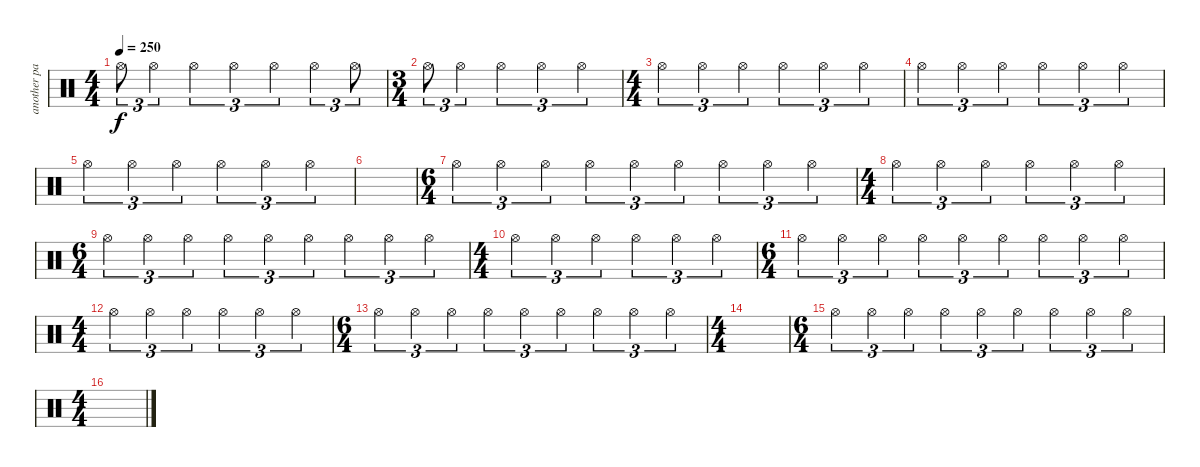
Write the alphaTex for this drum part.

\track ("another part of metti" "another pa") {instrument percussion}
\staff {score}
\articulation defaults
\ts (4 4)
\tempo 250
\clef neutral
\ks c "Hi-Hat (open)".8{tu (3 2) dy f} "Hi-Hat (open)".4{tu (3 2)} "Hi-Hat (open)".4{tu (3 2)} "Hi-Hat (open)".4{tu (3 2)} "Hi-Hat (open)".4{tu (3 2)} "Hi-Hat (open)".4{tu (3 2)} "Hi-Hat (open)".8{tu (3 2)}
|
\ts (3 4)
"Hi-Hat (open)".8{tu (3 2)} "Hi-Hat (open)".4{tu (3 2)} "Hi-Hat (open)".4{tu (3 2)} "Hi-Hat (open)".4{tu (3 2)} "Hi-Hat (open)".4{tu (3 2)} |
\ts (4 4)
"Hi-Hat (open)".4{tu (3 2)} "Hi-Hat (open)".4{tu (3 2)} "Hi-Hat (open)".4{tu (3 2)} "Hi-Hat (open)".4{tu (3 2)} "Hi-Hat (open)".4{tu (3 2)} "Hi-Hat (open)".4{tu (3 2)} |
"Hi-Hat (open)".4{tu (3 2)} "Hi-Hat (open)".4{tu (3 2)} "Hi-Hat (open)".4{tu (3 2)} "Hi-Hat (open)".4{tu (3 2)} "Hi-Hat (open)".4{tu (3 2)} "Hi-Hat (open)".4{tu (3 2)} |
"Hi-Hat (open)".4{tu (3 2)} "Hi-Hat (open)".4{tu (3 2)} "Hi-Hat (open)".4{tu (3 2)} "Hi-Hat (open)".4{tu (3 2)} "Hi-Hat (open)".4{tu (3 2)} "Hi-Hat (open)".4{tu (3 2)} |
|
\ts (6 4)
"Hi-Hat (open)".4{tu (3 2)} "Hi-Hat (open)".4{tu (3 2)} "Hi-Hat (open)".4{tu (3 2)} "Hi-Hat (open)".4{tu (3 2)} "Hi-Hat (open)".4{tu (3 2)} "Hi-Hat (open)".4{tu (3 2)} "Hi-Hat (open)".4{tu (3 2)} "Hi-Hat (open)".4{tu (3 2)} "Hi-Hat (open)".4{tu (3 2)} |
\ts (4 4)
"Hi-Hat (open)".4{tu (3 2)} "Hi-Hat (open)".4{tu (3 2)} "Hi-Hat (open)".4{tu (3 2)} "Hi-Hat (open)".4{tu (3 2)} "Hi-Hat (open)".4{tu (3 2)} "Hi-Hat (open)".4{tu (3 2)} |
\ts (6 4)
"Hi-Hat (open)".4{tu (3 2)} "Hi-Hat (open)".4{tu (3 2)} "Hi-Hat (open)".4{tu (3 2)} "Hi-Hat (open)".4{tu (3 2)} "Hi-Hat (open)".4{tu (3 2)} "Hi-Hat (open)".4{tu (3 2)} "Hi-Hat (open)".4{tu (3 2)} "Hi-Hat (open)".4{tu (3 2)} "Hi-Hat (open)".4{tu (3 2)} |
\ts (4 4)
"Hi-Hat (open)".4{tu (3 2)} "Hi-Hat (open)".4{tu (3 2)} "Hi-Hat (open)".4{tu (3 2)} "Hi-Hat (open)".4{tu (3 2)} "Hi-Hat (open)".4{tu (3 2)} "Hi-Hat (open)".4{tu (3 2)} |
\ts (6 4)
"Hi-Hat (open)".4{tu (3 2)} "Hi-Hat (open)".4{tu (3 2)} "Hi-Hat (open)".4{tu (3 2)} "Hi-Hat (open)".4{tu (3 2)} "Hi-Hat (open)".4{tu (3 2)} "Hi-Hat (open)".4{tu (3 2)} "Hi-Hat (open)".4{tu (3 2)} "Hi-Hat (open)".4{tu (3 2)} "Hi-Hat (open)".4{tu (3 2)} |
\ts (4 4)
"Hi-Hat (open)".4{tu (3 2)} "Hi-Hat (open)".4{tu (3 2)} "Hi-Hat (open)".4{tu (3 2)} "Hi-Hat (open)".4{tu (3 2)} "Hi-Hat (open)".4{tu (3 2)} "Hi-Hat (open)".4{tu (3 2)} |
\ts (6 4)
"Hi-Hat (open)".4{tu (3 2)} "Hi-Hat (open)".4{tu (3 2)} "Hi-Hat (open)".4{tu (3 2)} "Hi-Hat (open)".4{tu (3 2)} "Hi-Hat (open)".4{tu (3 2)} "Hi-Hat (open)".4{tu (3 2)} "Hi-Hat (open)".4{tu (3 2)} "Hi-Hat (open)".4{tu (3 2)} "Hi-Hat (open)".4{tu (3 2)} |
\ts (4 4)
|
\ts (6 4)
"Hi-Hat (open)".4{tu (3 2)} "Hi-Hat (open)".4{tu (3 2)} "Hi-Hat (open)".4{tu (3 2)} "Hi-Hat (open)".4{tu (3 2)} "Hi-Hat (open)".4{tu (3 2)} "Hi-Hat (open)".4{tu (3 2)} "Hi-Hat (open)".4{tu (3 2)} "Hi-Hat (open)".4{tu (3 2)} "Hi-Hat (open)".4{tu (3 2)} |
\ts (4 4)
